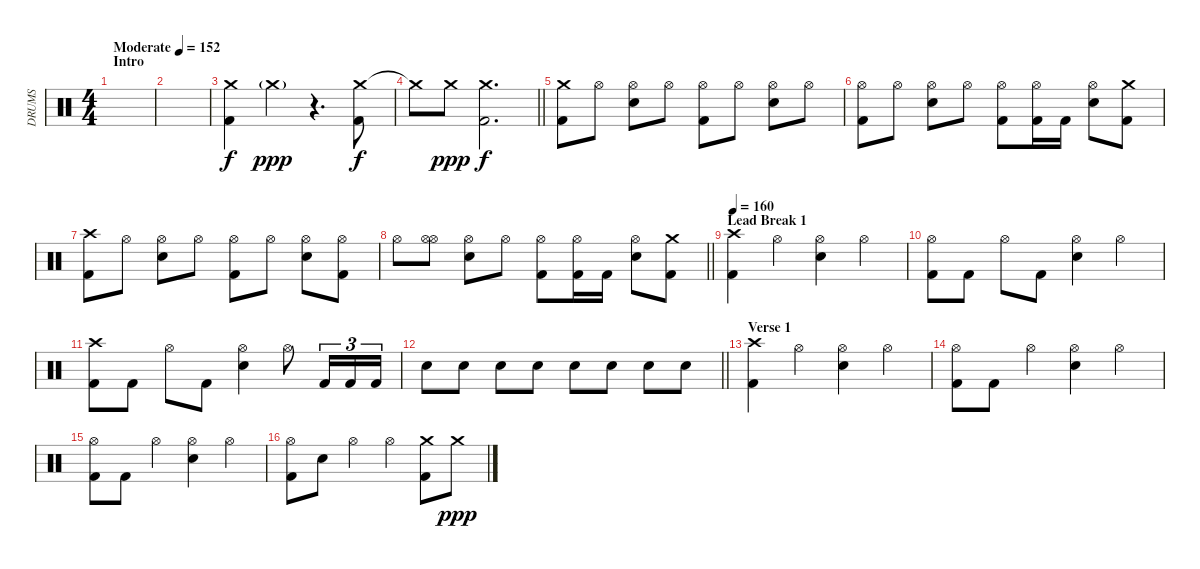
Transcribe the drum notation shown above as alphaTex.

\track ("DRUMS" "DRUMS") {instrument percussion}
\staff {score}
\articulation defaults
\ts (4 4)
\section ("" "Intro")
\tempo (152 "Moderate")
\clef neutral
\ks c
|
|
("Crash medium (hit)" "Kick (hit) 2").4 "Crash medium (hit)"{g}.4{dy ppp} r.4{d} ("Crash medium (hit)" "Kick (hit) 2").8{dy f} |
\barLineRight lightlight "Crash medium (hit)"{t}.8 "Crash medium (hit)".8{dy ppp}
("Crash medium (hit)" "Kick (hit) 2").2{d dy f} |
("Crash medium (hit)" "Kick (hit) 2").8 "Hi-Hat (open)".8 ("Hi-Hat (open)" "Snare (hit) 2").8 "Hi-Hat (open)".8 ("Hi-Hat (open)" "Kick (hit) 2").8 "Hi-Hat (open)".8 ("Hi-Hat (open)" "Snare (hit) 2").8 "Hi-Hat (open)".8 |
("Hi-Hat (open)" "Kick (hit) 2").8 "Hi-Hat (open)".8 ("Hi-Hat (open)" "Snare (hit) 2").8 "Hi-Hat (open)".8 ("Hi-Hat (open)" "Kick (hit) 2").8 ("Hi-Hat (open)" "Kick (hit) 2").16 "Kick (hit) 2".16 ("Hi-Hat (open)" "Snare (hit) 2").8 ("Crash medium (hit)" "Kick (hit) 2").8 |
("Crash high (hit)" "Kick (hit) 2").8 "Hi-Hat (open)".8 ("Hi-Hat (open)" "Snare (hit) 2").8 "Hi-Hat (open)".8 ("Hi-Hat (open)" "Kick (hit) 2").8 "Hi-Hat (open)".8 ("Hi-Hat (open)" "Snare (hit) 2").8 ("Hi-Hat (open)" "Kick (hit) 2").8 |
\barLineRight lightlight "Hi-Hat (open)".8
("Hi-Hat (open)" "Hi-Hat (open)").8 ("Hi-Hat (open)" "Snare (hit) 2").8 "Hi-Hat (open)".8 ("Hi-Hat (open)" "Kick (hit) 2").8 ("Hi-Hat (open)" "Kick (hit) 2").16 "Kick (hit) 2".16 ("Hi-Hat (open)" "Snare (hit) 2").8 ("Crash medium (hit)" "Kick (hit) 2").8 |
\section ("" "Lead Break 1")
\tempo 160
("Crash high (hit)" "Kick (hit) 2").4 "Hi-Hat (open)".4 ("Hi-Hat (open)" "Snare (hit) 2").4 "Hi-Hat (open)".4 |
("Hi-Hat (open)" "Kick (hit) 2").8 "Kick (hit) 2".8 "Hi-Hat (open)".8 "Kick (hit) 2".8 ("Hi-Hat (open)" "Snare (hit) 2").4 "Hi-Hat (open)".4 |
("Crash high (hit)" "Kick (hit) 2").8 "Kick (hit) 2".8 "Hi-Hat (open)".8 "Kick (hit) 2".8 ("Hi-Hat (open)" "Snare (hit) 2").4 "Hi-Hat (open)".8 "Kick (hit) 2".16{tu (3 2)} "Kick (hit) 2".16{tu (3 2)} "Kick (hit) 2".16{tu (3 2)} |
\barLineRight lightlight "Snare (hit) 2".8 "Snare (hit) 2".8 "Snare (hit) 2".8 "Snare (hit) 2".8 "Snare (hit) 2".8 "Snare (hit) 2".8 "Snare (hit) 2".8 "Snare (hit) 2".8
|
\section ("" "Verse 1")
("Crash high (hit)" "Kick (hit) 2").4 "Hi-Hat (open)".4 ("Hi-Hat (open)" "Snare (hit) 2").4 "Hi-Hat (open)".4 |
("Hi-Hat (open)" "Kick (hit) 2").8 "Kick (hit) 2".8 "Hi-Hat (open)".4 ("Hi-Hat (open)" "Snare (hit) 2").4 "Hi-Hat (open)".4 |
("Hi-Hat (open)" "Kick (hit) 2").8 "Kick (hit) 2".8 "Hi-Hat (open)".4 ("Hi-Hat (open)" "Snare (hit) 2").4 "Hi-Hat (open)".4 |
("Hi-Hat (open)" "Kick (hit) 2").8 "Snare (hit) 2".8 "Hi-Hat (open)".4 "Hi-Hat (open)".4 ("Crash medium (hit)" "Kick (hit) 2").8 "Crash medium (hit)".8{dy ppp}
